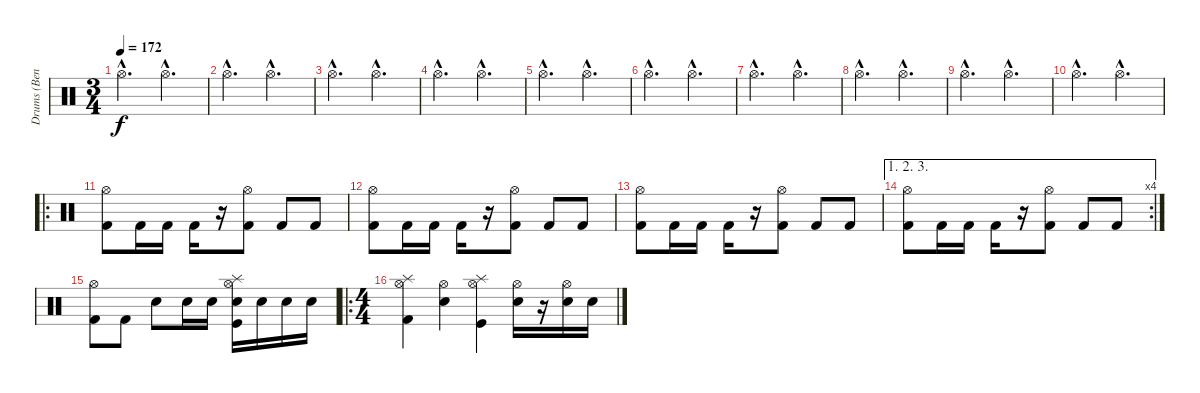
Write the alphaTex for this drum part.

\track ("Drums (Ben)" "Drums (Ben") {instrument percussion}
\staff {score}
\articulation defaults
\ts (3 4)
\tempo 172
\clef neutral
\ks c "Hi-Hat (open)"{hac}.4{d dy f} "Hi-Hat (open)"{hac}.4{d}
|
"Hi-Hat (open)"{hac}.4{d} "Hi-Hat (open)"{hac}.4{d} |
"Hi-Hat (open)"{hac}.4{d} "Hi-Hat (open)"{hac}.4{d} |
"Hi-Hat (open)"{hac}.4{d} "Hi-Hat (open)"{hac}.4{d} |
"Hi-Hat (open)"{hac}.4{d} "Hi-Hat (open)"{hac}.4{d} |
"Hi-Hat (open)"{hac}.4{d} "Hi-Hat (open)"{hac}.4{d} |
"Hi-Hat (open)"{hac}.4{d} "Hi-Hat (open)"{hac}.4{d} |
"Hi-Hat (open)"{hac}.4{d} "Hi-Hat (open)"{hac}.4{d} |
"Hi-Hat (open)"{hac}.4{d} "Hi-Hat (open)"{hac}.4{d} |
"Hi-Hat (open)"{hac}.4{d} "Hi-Hat (open)"{hac}.4{d} |
\ro
("Hi-Hat (open)" "Kick (hit) 2").8 "Kick (hit) 2".16 "Kick (hit) 2".16 "Kick (hit) 2".16 r.16 ("Hi-Hat (open)" "Kick (hit) 2").8 "Kick (hit) 2".8 "Kick (hit) 2".8 |
("Hi-Hat (open)" "Kick (hit) 2").8 "Kick (hit) 2".16 "Kick (hit) 2".16 "Kick (hit) 2".16 r.16 ("Hi-Hat (open)" "Kick (hit) 2").8 "Kick (hit) 2".8 "Kick (hit) 2".8 |
("Hi-Hat (open)" "Kick (hit) 2").8 "Kick (hit) 2".16 "Kick (hit) 2".16 "Kick (hit) 2".16 r.16 ("Hi-Hat (open)" "Kick (hit) 2").8 "Kick (hit) 2".8 "Kick (hit) 2".8 |
\ae (1 2 3)
\rc 4
("Hi-Hat (open)" "Kick (hit) 2").8 "Kick (hit) 2".16 "Kick (hit) 2".16 "Kick (hit) 2".16 r.16 ("Hi-Hat (open)" "Kick (hit) 2").8 "Kick (hit) 2".8 "Kick (hit) 2".8 |
("Hi-Hat (open)" "Kick (hit) 2").8 "Kick (hit) 2".8 "Snare (hit) 2".8 "Snare (hit) 2".16 "Snare (hit) 2".16 ("Kick (hit)" "Snare (hit) 2" "Hi-Hat (open)" "Splash (hit)").16 "Snare (hit) 2".16 "Snare (hit) 2".16 "Snare (hit) 2".16 |
\ro
\ts (4 4)
("Kick (hit) 2" "Hi-Hat (open)" "Splash (hit)").4 ("Snare (hit) 2" "Hi-Hat (open)").4 ("Kick (hit)" "Hi-Hat (open)" "Splash (hit)").4 ("Snare (hit) 2" "Hi-Hat (open)").16 r.16 ("Snare (hit) 2" "Hi-Hat (open)").16 "Snare (hit) 2".16
